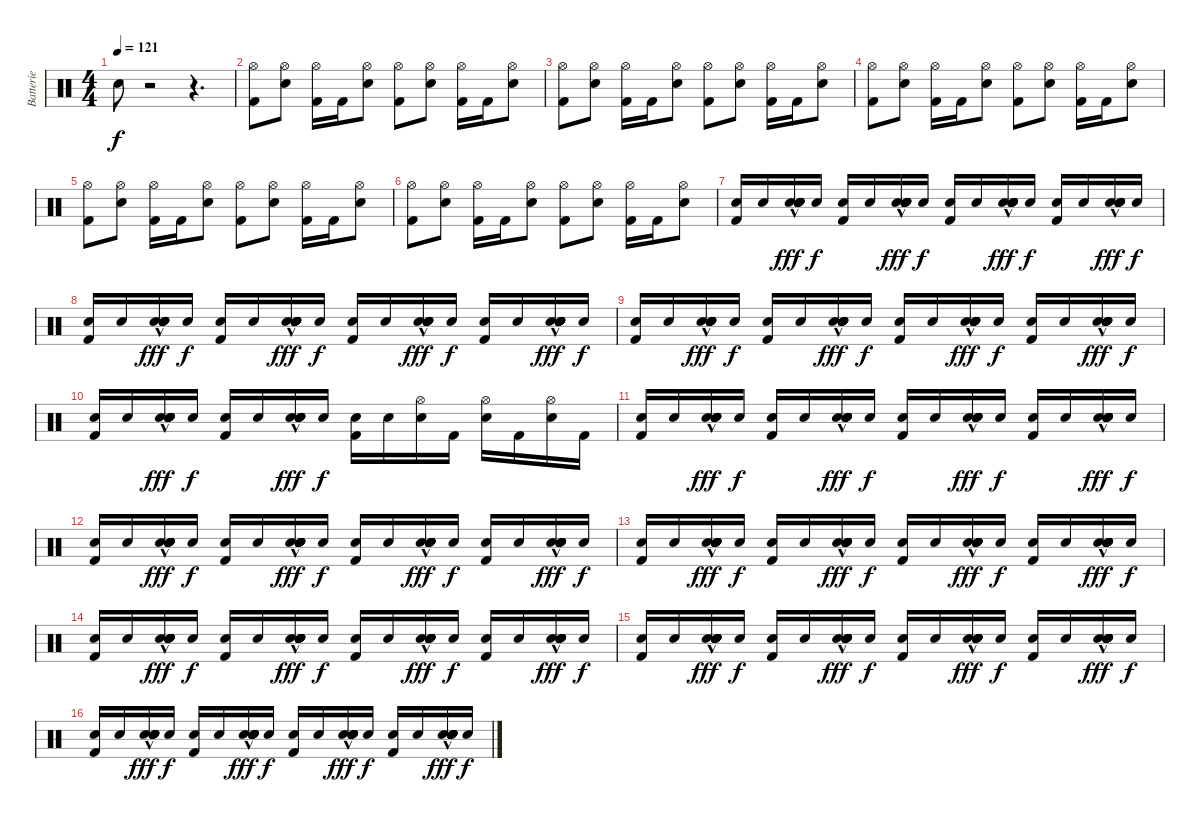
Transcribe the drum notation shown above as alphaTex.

\track ("Batterie" "Batterie") {instrument percussion}
\staff {score}
\articulation defaults
\ts (4 4)
\tempo 121
\clef neutral
\ks c "Electric Snare (hit)".8{dy f}
r.2 r.4{d} |
("Kick (hit) 2" "Hi-Hat (open)").8 ("Electric Snare (hit)" "Hi-Hat (open)").8 ("Kick (hit) 2" "Hi-Hat (open)").16 "Kick (hit) 2".16 ("Electric Snare (hit)" "Hi-Hat (open)").8 ("Kick (hit) 2" "Hi-Hat (open)").8 ("Electric Snare (hit)" "Hi-Hat (open)").8 ("Kick (hit) 2" "Hi-Hat (open)").16 "Kick (hit) 2".16 ("Electric Snare (hit)" "Hi-Hat (open)").8 |
("Kick (hit) 2" "Hi-Hat (open)").8 ("Electric Snare (hit)" "Hi-Hat (open)").8 ("Kick (hit) 2" "Hi-Hat (open)").16 "Kick (hit) 2".16 ("Electric Snare (hit)" "Hi-Hat (open)").8 ("Kick (hit) 2" "Hi-Hat (open)").8 ("Electric Snare (hit)" "Hi-Hat (open)").8 ("Kick (hit) 2" "Hi-Hat (open)").16 "Kick (hit) 2".16 ("Electric Snare (hit)" "Hi-Hat (open)").8 |
("Kick (hit) 2" "Hi-Hat (open)").8 ("Electric Snare (hit)" "Hi-Hat (open)").8 ("Kick (hit) 2" "Hi-Hat (open)").16 "Kick (hit) 2".16 ("Electric Snare (hit)" "Hi-Hat (open)").8 ("Kick (hit) 2" "Hi-Hat (open)").8 ("Electric Snare (hit)" "Hi-Hat (open)").8 ("Kick (hit) 2" "Hi-Hat (open)").16 "Kick (hit) 2".16 ("Electric Snare (hit)" "Hi-Hat (open)").8 |
("Kick (hit) 2" "Hi-Hat (open)").8 ("Electric Snare (hit)" "Hi-Hat (open)").8 ("Kick (hit) 2" "Hi-Hat (open)").16 "Kick (hit) 2".16 ("Electric Snare (hit)" "Hi-Hat (open)").8 ("Kick (hit) 2" "Hi-Hat (open)").8 ("Electric Snare (hit)" "Hi-Hat (open)").8 ("Kick (hit) 2" "Hi-Hat (open)").16 "Kick (hit) 2".16 ("Electric Snare (hit)" "Hi-Hat (open)").8 |
("Kick (hit) 2" "Hi-Hat (open)").8 ("Electric Snare (hit)" "Hi-Hat (open)").8 ("Kick (hit) 2" "Hi-Hat (open)").16 "Kick (hit) 2".16 ("Electric Snare (hit)" "Hi-Hat (open)").8 ("Kick (hit) 2" "Hi-Hat (open)").8 ("Electric Snare (hit)" "Hi-Hat (open)").8 ("Kick (hit) 2" "Hi-Hat (open)").16 "Kick (hit) 2".16 ("Electric Snare (hit)" "Hi-Hat (open)").8 |
("Kick (hit) 2" "Electric Snare (hit)").16 "Electric Snare (hit)".16 ("Electric Snare (hit)"{hac} "Electric Snare (hit)"{hac} "Electric Snare (hit)"{hac} "Electric Snare (hit)"{hac} "Electric Snare (hit)"{hac} "Electric Snare (hit)"{hac}).16{dy fff} "Electric Snare (hit)".16{dy f} ("Kick (hit) 2" "Electric Snare (hit)").16 "Electric Snare (hit)".16 ("Electric Snare (hit)"{hac} "Electric Snare (hit)"{hac} "Electric Snare (hit)"{hac} "Electric Snare (hit)"{hac} "Electric Snare (hit)"{hac} "Electric Snare (hit)"{hac}).16{dy fff} "Electric Snare (hit)".16{dy f} ("Kick (hit) 2" "Electric Snare (hit)").16 "Electric Snare (hit)".16 ("Electric Snare (hit)"{hac} "Electric Snare (hit)"{hac} "Electric Snare (hit)"{hac} "Electric Snare (hit)"{hac} "Electric Snare (hit)"{hac} "Electric Snare (hit)"{hac}).16{dy fff} "Electric Snare (hit)".16{dy f} ("Kick (hit) 2" "Electric Snare (hit)").16 "Electric Snare (hit)".16 ("Electric Snare (hit)"{hac} "Electric Snare (hit)"{hac} "Electric Snare (hit)"{hac} "Electric Snare (hit)"{hac} "Electric Snare (hit)"{hac} "Electric Snare (hit)"{hac}).16{dy fff} "Electric Snare (hit)".16{dy f} |
("Kick (hit) 2" "Electric Snare (hit)").16 "Electric Snare (hit)".16 ("Electric Snare (hit)"{hac} "Electric Snare (hit)"{hac} "Electric Snare (hit)"{hac} "Electric Snare (hit)"{hac} "Electric Snare (hit)"{hac} "Electric Snare (hit)"{hac}).16{dy fff} "Electric Snare (hit)".16{dy f} ("Kick (hit) 2" "Electric Snare (hit)").16 "Electric Snare (hit)".16 ("Electric Snare (hit)"{hac} "Electric Snare (hit)"{hac} "Electric Snare (hit)"{hac} "Electric Snare (hit)"{hac} "Electric Snare (hit)"{hac} "Electric Snare (hit)"{hac}).16{dy fff} "Electric Snare (hit)".16{dy f} ("Kick (hit) 2" "Electric Snare (hit)").16 "Electric Snare (hit)".16 ("Electric Snare (hit)"{hac} "Electric Snare (hit)"{hac} "Electric Snare (hit)"{hac} "Electric Snare (hit)"{hac} "Electric Snare (hit)"{hac} "Electric Snare (hit)"{hac}).16{dy fff} "Electric Snare (hit)".16{dy f} ("Kick (hit) 2" "Electric Snare (hit)").16 "Electric Snare (hit)".16 ("Electric Snare (hit)"{hac} "Electric Snare (hit)"{hac} "Electric Snare (hit)"{hac} "Electric Snare (hit)"{hac} "Electric Snare (hit)"{hac} "Electric Snare (hit)"{hac}).16{dy fff} "Electric Snare (hit)".16{dy f} |
("Kick (hit) 2" "Electric Snare (hit)").16 "Electric Snare (hit)".16 ("Electric Snare (hit)"{hac} "Electric Snare (hit)"{hac} "Electric Snare (hit)"{hac} "Electric Snare (hit)"{hac} "Electric Snare (hit)"{hac} "Electric Snare (hit)"{hac}).16{dy fff} "Electric Snare (hit)".16{dy f} ("Kick (hit) 2" "Electric Snare (hit)").16 "Electric Snare (hit)".16 ("Electric Snare (hit)"{hac} "Electric Snare (hit)"{hac} "Electric Snare (hit)"{hac} "Electric Snare (hit)"{hac} "Electric Snare (hit)"{hac} "Electric Snare (hit)"{hac}).16{dy fff} "Electric Snare (hit)".16{dy f} ("Kick (hit) 2" "Electric Snare (hit)").16 "Electric Snare (hit)".16 ("Electric Snare (hit)"{hac} "Electric Snare (hit)"{hac} "Electric Snare (hit)"{hac} "Electric Snare (hit)"{hac} "Electric Snare (hit)"{hac} "Electric Snare (hit)"{hac}).16{dy fff} "Electric Snare (hit)".16{dy f} ("Kick (hit) 2" "Electric Snare (hit)").16 "Electric Snare (hit)".16 ("Electric Snare (hit)"{hac} "Electric Snare (hit)"{hac} "Electric Snare (hit)"{hac} "Electric Snare (hit)"{hac} "Electric Snare (hit)"{hac} "Electric Snare (hit)"{hac}).16{dy fff} "Electric Snare (hit)".16{dy f} |
("Kick (hit) 2" "Electric Snare (hit)").16 "Electric Snare (hit)".16 ("Electric Snare (hit)"{hac} "Electric Snare (hit)"{hac} "Electric Snare (hit)"{hac} "Electric Snare (hit)"{hac} "Electric Snare (hit)"{hac} "Electric Snare (hit)"{hac}).16{dy fff} "Electric Snare (hit)".16{dy f} ("Kick (hit) 2" "Electric Snare (hit)").16 "Electric Snare (hit)".16 ("Electric Snare (hit)"{hac} "Electric Snare (hit)"{hac} "Electric Snare (hit)"{hac} "Electric Snare (hit)"{hac} "Electric Snare (hit)"{hac} "Electric Snare (hit)"{hac}).16{dy fff} "Electric Snare (hit)".16{dy f} ("Kick (hit) 2" "Electric Snare (hit)").16 "Electric Snare (hit)".16 ("Hi-Hat (open)" "Electric Snare (hit)").16 "Kick (hit) 2".16 ("Hi-Hat (open)" "Electric Snare (hit)").16 "Kick (hit) 2".16 ("Hi-Hat (open)" "Electric Snare (hit)").16 "Kick (hit) 2".16 |
("Kick (hit) 2" "Electric Snare (hit)").16 "Electric Snare (hit)".16 ("Electric Snare (hit)"{hac} "Electric Snare (hit)"{hac} "Electric Snare (hit)"{hac} "Electric Snare (hit)"{hac} "Electric Snare (hit)"{hac} "Electric Snare (hit)"{hac}).16{dy fff} "Electric Snare (hit)".16{dy f} ("Kick (hit) 2" "Electric Snare (hit)").16 "Electric Snare (hit)".16 ("Electric Snare (hit)"{hac} "Electric Snare (hit)"{hac} "Electric Snare (hit)"{hac} "Electric Snare (hit)"{hac} "Electric Snare (hit)"{hac} "Electric Snare (hit)"{hac}).16{dy fff} "Electric Snare (hit)".16{dy f} ("Kick (hit) 2" "Electric Snare (hit)").16 "Electric Snare (hit)".16 ("Electric Snare (hit)"{hac} "Electric Snare (hit)"{hac} "Electric Snare (hit)"{hac} "Electric Snare (hit)"{hac} "Electric Snare (hit)"{hac} "Electric Snare (hit)"{hac}).16{dy fff} "Electric Snare (hit)".16{dy f} ("Kick (hit) 2" "Electric Snare (hit)").16 "Electric Snare (hit)".16 ("Electric Snare (hit)"{hac} "Electric Snare (hit)"{hac} "Electric Snare (hit)"{hac} "Electric Snare (hit)"{hac} "Electric Snare (hit)"{hac} "Electric Snare (hit)"{hac}).16{dy fff} "Electric Snare (hit)".16{dy f} |
("Kick (hit) 2" "Electric Snare (hit)").16 "Electric Snare (hit)".16 ("Electric Snare (hit)"{hac} "Electric Snare (hit)"{hac} "Electric Snare (hit)"{hac} "Electric Snare (hit)"{hac} "Electric Snare (hit)"{hac} "Electric Snare (hit)"{hac}).16{dy fff} "Electric Snare (hit)".16{dy f} ("Kick (hit) 2" "Electric Snare (hit)").16 "Electric Snare (hit)".16 ("Electric Snare (hit)"{hac} "Electric Snare (hit)"{hac} "Electric Snare (hit)"{hac} "Electric Snare (hit)"{hac} "Electric Snare (hit)"{hac} "Electric Snare (hit)"{hac}).16{dy fff} "Electric Snare (hit)".16{dy f} ("Kick (hit) 2" "Electric Snare (hit)").16 "Electric Snare (hit)".16 ("Electric Snare (hit)"{hac} "Electric Snare (hit)"{hac} "Electric Snare (hit)"{hac} "Electric Snare (hit)"{hac} "Electric Snare (hit)"{hac} "Electric Snare (hit)"{hac}).16{dy fff} "Electric Snare (hit)".16{dy f} ("Kick (hit) 2" "Electric Snare (hit)").16 "Electric Snare (hit)".16 ("Electric Snare (hit)"{hac} "Electric Snare (hit)"{hac} "Electric Snare (hit)"{hac} "Electric Snare (hit)"{hac} "Electric Snare (hit)"{hac} "Electric Snare (hit)"{hac}).16{dy fff} "Electric Snare (hit)".16{dy f} |
("Kick (hit) 2" "Electric Snare (hit)").16 "Electric Snare (hit)".16 ("Electric Snare (hit)"{hac} "Electric Snare (hit)"{hac} "Electric Snare (hit)"{hac} "Electric Snare (hit)"{hac} "Electric Snare (hit)"{hac} "Electric Snare (hit)"{hac}).16{dy fff} "Electric Snare (hit)".16{dy f} ("Kick (hit) 2" "Electric Snare (hit)").16 "Electric Snare (hit)".16 ("Electric Snare (hit)"{hac} "Electric Snare (hit)"{hac} "Electric Snare (hit)"{hac} "Electric Snare (hit)"{hac} "Electric Snare (hit)"{hac} "Electric Snare (hit)"{hac}).16{dy fff} "Electric Snare (hit)".16{dy f} ("Kick (hit) 2" "Electric Snare (hit)").16 "Electric Snare (hit)".16 ("Electric Snare (hit)"{hac} "Electric Snare (hit)"{hac} "Electric Snare (hit)"{hac} "Electric Snare (hit)"{hac} "Electric Snare (hit)"{hac} "Electric Snare (hit)"{hac}).16{dy fff} "Electric Snare (hit)".16{dy f} ("Kick (hit) 2" "Electric Snare (hit)").16 "Electric Snare (hit)".16 ("Electric Snare (hit)"{hac} "Electric Snare (hit)"{hac} "Electric Snare (hit)"{hac} "Electric Snare (hit)"{hac} "Electric Snare (hit)"{hac} "Electric Snare (hit)"{hac}).16{dy fff} "Electric Snare (hit)".16{dy f} |
("Kick (hit) 2" "Electric Snare (hit)").16 "Electric Snare (hit)".16 ("Electric Snare (hit)"{hac} "Electric Snare (hit)"{hac} "Electric Snare (hit)"{hac} "Electric Snare (hit)"{hac} "Electric Snare (hit)"{hac} "Electric Snare (hit)"{hac}).16{dy fff} "Electric Snare (hit)".16{dy f} ("Kick (hit) 2" "Electric Snare (hit)").16 "Electric Snare (hit)".16 ("Electric Snare (hit)"{hac} "Electric Snare (hit)"{hac} "Electric Snare (hit)"{hac} "Electric Snare (hit)"{hac} "Electric Snare (hit)"{hac} "Electric Snare (hit)"{hac}).16{dy fff} "Electric Snare (hit)".16{dy f} ("Kick (hit) 2" "Electric Snare (hit)").16 "Electric Snare (hit)".16 ("Electric Snare (hit)"{hac} "Electric Snare (hit)"{hac} "Electric Snare (hit)"{hac} "Electric Snare (hit)"{hac} "Electric Snare (hit)"{hac} "Electric Snare (hit)"{hac}).16{dy fff} "Electric Snare (hit)".16{dy f} ("Kick (hit) 2" "Electric Snare (hit)").16 "Electric Snare (hit)".16 ("Electric Snare (hit)"{hac} "Electric Snare (hit)"{hac} "Electric Snare (hit)"{hac} "Electric Snare (hit)"{hac} "Electric Snare (hit)"{hac} "Electric Snare (hit)"{hac}).16{dy fff} "Electric Snare (hit)".16{dy f} |
("Kick (hit) 2" "Electric Snare (hit)").16 "Electric Snare (hit)".16 ("Electric Snare (hit)"{hac} "Electric Snare (hit)"{hac} "Electric Snare (hit)"{hac} "Electric Snare (hit)"{hac} "Electric Snare (hit)"{hac} "Electric Snare (hit)"{hac}).16{dy fff} "Electric Snare (hit)".16{dy f} ("Kick (hit) 2" "Electric Snare (hit)").16 "Electric Snare (hit)".16 ("Electric Snare (hit)"{hac} "Electric Snare (hit)"{hac} "Electric Snare (hit)"{hac} "Electric Snare (hit)"{hac} "Electric Snare (hit)"{hac} "Electric Snare (hit)"{hac}).16{dy fff} "Electric Snare (hit)".16{dy f} ("Kick (hit) 2" "Electric Snare (hit)").16 "Electric Snare (hit)".16 ("Electric Snare (hit)"{hac} "Electric Snare (hit)"{hac} "Electric Snare (hit)"{hac} "Electric Snare (hit)"{hac} "Electric Snare (hit)"{hac} "Electric Snare (hit)"{hac}).16{dy fff} "Electric Snare (hit)".16{dy f} ("Kick (hit) 2" "Electric Snare (hit)").16 "Electric Snare (hit)".16 ("Electric Snare (hit)"{hac} "Electric Snare (hit)"{hac} "Electric Snare (hit)"{hac} "Electric Snare (hit)"{hac} "Electric Snare (hit)"{hac} "Electric Snare (hit)"{hac}).16{dy fff} "Electric Snare (hit)".16{dy f} |
("Kick (hit) 2" "Electric Snare (hit)").16 "Electric Snare (hit)".16 ("Electric Snare (hit)"{hac} "Electric Snare (hit)"{hac} "Electric Snare (hit)"{hac} "Electric Snare (hit)"{hac} "Electric Snare (hit)"{hac} "Electric Snare (hit)"{hac}).16{dy fff} "Electric Snare (hit)".16{dy f} ("Kick (hit) 2" "Electric Snare (hit)").16 "Electric Snare (hit)".16 ("Electric Snare (hit)"{hac} "Electric Snare (hit)"{hac} "Electric Snare (hit)"{hac} "Electric Snare (hit)"{hac} "Electric Snare (hit)"{hac} "Electric Snare (hit)"{hac}).16{dy fff} "Electric Snare (hit)".16{dy f} ("Kick (hit) 2" "Electric Snare (hit)").16 "Electric Snare (hit)".16 ("Electric Snare (hit)"{hac} "Electric Snare (hit)"{hac} "Electric Snare (hit)"{hac} "Electric Snare (hit)"{hac} "Electric Snare (hit)"{hac} "Electric Snare (hit)"{hac}).16{dy fff} "Electric Snare (hit)".16{dy f} ("Kick (hit) 2" "Electric Snare (hit)").16 "Electric Snare (hit)".16 ("Electric Snare (hit)"{hac} "Electric Snare (hit)"{hac} "Electric Snare (hit)"{hac} "Electric Snare (hit)"{hac} "Electric Snare (hit)"{hac} "Electric Snare (hit)"{hac}).16{dy fff} "Electric Snare (hit)".16{dy f}
